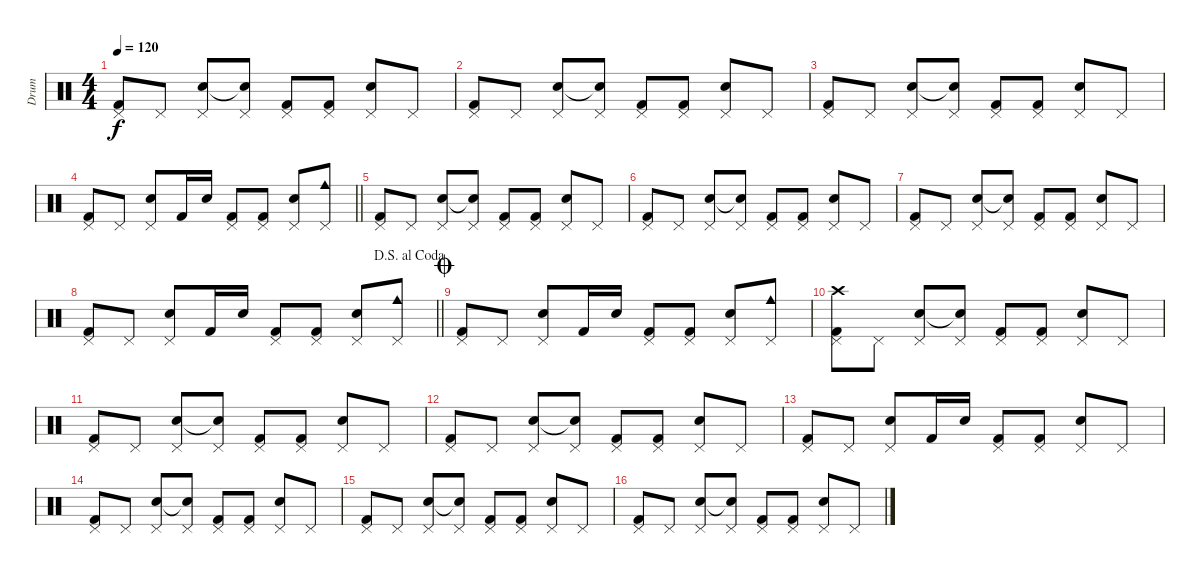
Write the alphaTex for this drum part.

\track ("Drum" "Drum") {instrument percussion}
\staff {score}
\articulation defaults
\ts (4 4)
\tempo 120
\clef neutral
\ks c
("Pedal Hi-Hat (hit)" "Kick (hit) 2").8{dy f} "Pedal Hi-Hat (hit)".8 ("Pedal Hi-Hat (hit)" "Snare (hit) 2").8 ("Pedal Hi-Hat (hit)" "Snare (hit)"{t}).8 ("Pedal Hi-Hat (hit)" "Kick (hit) 2").8 ("Pedal Hi-Hat (hit)" "Kick (hit) 2").8 ("Pedal Hi-Hat (hit)" "Snare (hit) 2").8 "Pedal Hi-Hat (hit)".8 |
("Pedal Hi-Hat (hit)" "Kick (hit) 2").8 "Pedal Hi-Hat (hit)".8 ("Pedal Hi-Hat (hit)" "Snare (hit) 2").8 ("Pedal Hi-Hat (hit)" "Snare (hit)"{t}).8 ("Pedal Hi-Hat (hit)" "Kick (hit) 2").8 ("Pedal Hi-Hat (hit)" "Kick (hit) 2").8 ("Pedal Hi-Hat (hit)" "Snare (hit) 2").8 "Pedal Hi-Hat (hit)".8 |
("Pedal Hi-Hat (hit)" "Kick (hit) 2").8 "Pedal Hi-Hat (hit)".8 ("Pedal Hi-Hat (hit)" "Snare (hit) 2").8 ("Pedal Hi-Hat (hit)" "Snare (hit)"{t}).8 ("Pedal Hi-Hat (hit)" "Kick (hit) 2").8 ("Pedal Hi-Hat (hit)" "Kick (hit) 2").8 ("Pedal Hi-Hat (hit)" "Snare (hit) 2").8 "Pedal Hi-Hat (hit)".8 |
\barLineRight lightlight
("Pedal Hi-Hat (hit)" "Kick (hit) 2").8 "Pedal Hi-Hat (hit)".8 ("Pedal Hi-Hat (hit)" "Snare (hit) 2").8 "Kick (hit) 2".16 "Snare (hit) 2".16 ("Pedal Hi-Hat (hit)" "Kick (hit) 2").8 ("Pedal Hi-Hat (hit)" "Kick (hit) 2").8 ("Pedal Hi-Hat (hit)" "Snare (hit) 2").8 ("Pedal Hi-Hat (hit)" "Cowbell medium (hit)").8 |
("Pedal Hi-Hat (hit)" "Kick (hit) 2").8 "Pedal Hi-Hat (hit)".8 ("Pedal Hi-Hat (hit)" "Snare (hit) 2").8 ("Pedal Hi-Hat (hit)" "Snare (hit)"{t}).8 ("Pedal Hi-Hat (hit)" "Kick (hit) 2").8 ("Pedal Hi-Hat (hit)" "Kick (hit) 2").8 ("Pedal Hi-Hat (hit)" "Snare (hit) 2").8 "Pedal Hi-Hat (hit)".8 |
("Pedal Hi-Hat (hit)" "Kick (hit) 2").8 "Pedal Hi-Hat (hit)".8 ("Pedal Hi-Hat (hit)" "Snare (hit) 2").8 ("Pedal Hi-Hat (hit)" "Snare (hit)"{t}).8 ("Pedal Hi-Hat (hit)" "Kick (hit) 2").8 ("Pedal Hi-Hat (hit)" "Kick (hit) 2").8 ("Pedal Hi-Hat (hit)" "Snare (hit) 2").8 "Pedal Hi-Hat (hit)".8 |
("Pedal Hi-Hat (hit)" "Kick (hit) 2").8 "Pedal Hi-Hat (hit)".8 ("Pedal Hi-Hat (hit)" "Snare (hit) 2").8 ("Pedal Hi-Hat (hit)" "Snare (hit)"{t}).8 ("Pedal Hi-Hat (hit)" "Kick (hit) 2").8 ("Pedal Hi-Hat (hit)" "Kick (hit) 2").8 ("Pedal Hi-Hat (hit)" "Snare (hit) 2").8 "Pedal Hi-Hat (hit)".8 |
\jump dalsegnoalcoda
\barLineRight lightlight
("Pedal Hi-Hat (hit)" "Kick (hit) 2").8 "Pedal Hi-Hat (hit)".8 ("Pedal Hi-Hat (hit)" "Snare (hit) 2").8 "Kick (hit) 2".16 "Snare (hit) 2".16 ("Pedal Hi-Hat (hit)" "Kick (hit) 2").8 ("Pedal Hi-Hat (hit)" "Kick (hit) 2").8 ("Pedal Hi-Hat (hit)" "Snare (hit) 2").8 ("Pedal Hi-Hat (hit)" "Cowbell medium (hit)").8 |
\jump coda
("Pedal Hi-Hat (hit)" "Kick (hit) 2").8 "Pedal Hi-Hat (hit)".8 ("Pedal Hi-Hat (hit)" "Snare (hit) 2").8 "Kick (hit) 2".16 "Snare (hit) 2".16 ("Pedal Hi-Hat (hit)" "Kick (hit) 2").8 ("Pedal Hi-Hat (hit)" "Kick (hit) 2").8 ("Pedal Hi-Hat (hit)" "Snare (hit) 2").8 ("Pedal Hi-Hat (hit)" "Cowbell medium (hit)").8 |
("Pedal Hi-Hat (hit)" "Crash high (hit)" "Kick (hit) 2").8 "Pedal Hi-Hat (hit)".8 ("Pedal Hi-Hat (hit)" "Snare (hit) 2").8 ("Pedal Hi-Hat (hit)" "Snare (hit)"{t}).8 ("Pedal Hi-Hat (hit)" "Kick (hit) 2").8 ("Pedal Hi-Hat (hit)" "Kick (hit) 2").8 ("Pedal Hi-Hat (hit)" "Snare (hit) 2").8 "Pedal Hi-Hat (hit)".8 |
("Pedal Hi-Hat (hit)" "Kick (hit) 2").8 "Pedal Hi-Hat (hit)".8 ("Pedal Hi-Hat (hit)" "Snare (hit) 2").8 ("Pedal Hi-Hat (hit)" "Snare (hit)"{t}).8 ("Pedal Hi-Hat (hit)" "Kick (hit) 2").8 ("Pedal Hi-Hat (hit)" "Kick (hit) 2").8 ("Pedal Hi-Hat (hit)" "Snare (hit) 2").8 "Pedal Hi-Hat (hit)".8 |
("Pedal Hi-Hat (hit)" "Kick (hit) 2").8 "Pedal Hi-Hat (hit)".8 ("Pedal Hi-Hat (hit)" "Snare (hit) 2").8 ("Pedal Hi-Hat (hit)" "Snare (hit)"{t}).8 ("Pedal Hi-Hat (hit)" "Kick (hit) 2").8 ("Pedal Hi-Hat (hit)" "Kick (hit) 2").8 ("Pedal Hi-Hat (hit)" "Snare (hit) 2").8 "Pedal Hi-Hat (hit)".8 |
("Pedal Hi-Hat (hit)" "Kick (hit) 2").8 "Pedal Hi-Hat (hit)".8 ("Pedal Hi-Hat (hit)" "Snare (hit) 2").8 "Kick (hit) 2".16 "Snare (hit) 2".16 ("Pedal Hi-Hat (hit)" "Kick (hit) 2").8 ("Pedal Hi-Hat (hit)" "Kick (hit) 2").8 ("Pedal Hi-Hat (hit)" "Snare (hit) 2").8 "Pedal Hi-Hat (hit)".8 |
("Pedal Hi-Hat (hit)" "Kick (hit) 2").8 "Pedal Hi-Hat (hit)".8 ("Pedal Hi-Hat (hit)" "Snare (hit) 2").8 ("Pedal Hi-Hat (hit)" "Snare (hit)"{t}).8 ("Pedal Hi-Hat (hit)" "Kick (hit) 2").8 ("Pedal Hi-Hat (hit)" "Kick (hit) 2").8 ("Pedal Hi-Hat (hit)" "Snare (hit) 2").8 "Pedal Hi-Hat (hit)".8 |
("Pedal Hi-Hat (hit)" "Kick (hit) 2").8 "Pedal Hi-Hat (hit)".8 ("Pedal Hi-Hat (hit)" "Snare (hit) 2").8 ("Pedal Hi-Hat (hit)" "Snare (hit)"{t}).8 ("Pedal Hi-Hat (hit)" "Kick (hit) 2").8 ("Pedal Hi-Hat (hit)" "Kick (hit) 2").8 ("Pedal Hi-Hat (hit)" "Snare (hit) 2").8 "Pedal Hi-Hat (hit)".8 |
("Pedal Hi-Hat (hit)" "Kick (hit) 2").8 "Pedal Hi-Hat (hit)".8 ("Pedal Hi-Hat (hit)" "Snare (hit) 2").8 ("Pedal Hi-Hat (hit)" "Snare (hit)"{t}).8 ("Pedal Hi-Hat (hit)" "Kick (hit) 2").8 ("Pedal Hi-Hat (hit)" "Kick (hit) 2").8 ("Pedal Hi-Hat (hit)" "Snare (hit) 2").8 "Pedal Hi-Hat (hit)".8
